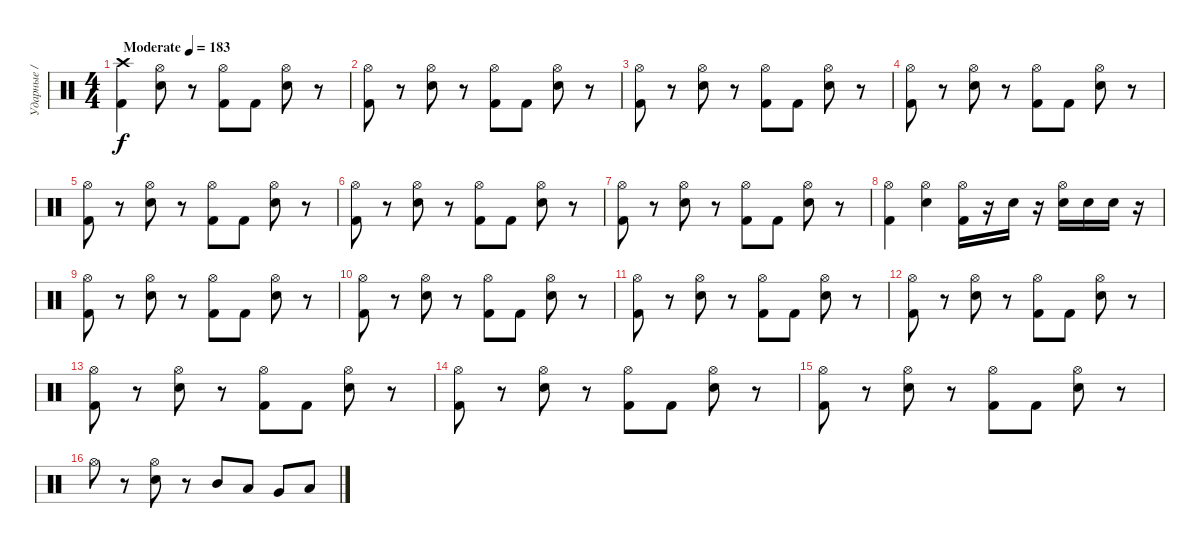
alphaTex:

\track ("Ударные / Drums" "Ударные / ") {instrument percussion}
\staff {score}
\articulation defaults
\ts (4 4)
\tempo (183 "Moderate")
\clef neutral
\ks c
("Crash high (hit)" "Kick (hit) 2").4{dy f} ("Hi-Hat (open)" "Snare (hit) 2").8 r.8 ("Hi-Hat (open)" "Kick (hit) 2").8 "Kick (hit) 2".8 ("Hi-Hat (open)" "Snare (hit) 2").8 r.8 |
("Hi-Hat (open)" "Kick (hit) 2").8 r.8 ("Hi-Hat (open)" "Snare (hit) 2").8 r.8 ("Hi-Hat (open)" "Kick (hit) 2").8 "Kick (hit) 2".8 ("Hi-Hat (open)" "Snare (hit) 2").8 r.8 |
("Hi-Hat (open)" "Kick (hit) 2").8 r.8 ("Hi-Hat (open)" "Snare (hit) 2").8 r.8 ("Hi-Hat (open)" "Kick (hit) 2").8 "Kick (hit) 2".8 ("Hi-Hat (open)" "Snare (hit) 2").8 r.8 |
("Hi-Hat (open)" "Kick (hit) 2").8 r.8 ("Hi-Hat (open)" "Snare (hit) 2").8 r.8 ("Hi-Hat (open)" "Kick (hit) 2").8 "Kick (hit) 2".8 ("Hi-Hat (open)" "Snare (hit) 2").8 r.8 |
("Hi-Hat (open)" "Kick (hit) 2").8 r.8 ("Hi-Hat (open)" "Snare (hit) 2").8 r.8 ("Hi-Hat (open)" "Kick (hit) 2").8 "Kick (hit) 2".8 ("Hi-Hat (open)" "Snare (hit) 2").8 r.8 |
("Hi-Hat (open)" "Kick (hit) 2").8 r.8 ("Hi-Hat (open)" "Snare (hit) 2").8 r.8 ("Hi-Hat (open)" "Kick (hit) 2").8 "Kick (hit) 2".8 ("Hi-Hat (open)" "Snare (hit) 2").8 r.8 |
("Hi-Hat (open)" "Kick (hit) 2").8 r.8 ("Hi-Hat (open)" "Snare (hit) 2").8 r.8 ("Hi-Hat (open)" "Kick (hit) 2").8 "Kick (hit) 2".8 ("Hi-Hat (open)" "Snare (hit) 2").8 r.8 |
("Hi-Hat (open)" "Kick (hit) 2").4 ("Hi-Hat (open)" "Snare (hit) 2").4 ("Hi-Hat (open)" "Kick (hit) 2").16 r.16 "Snare (hit) 2".16 r.16 ("Hi-Hat (open)" "Snare (hit) 2").16 "Snare (hit) 2".16 "Snare (hit) 2".16 r.16 |
("Hi-Hat (open)" "Kick (hit) 2").8 r.8 ("Hi-Hat (open)" "Snare (hit) 2").8 r.8 ("Hi-Hat (open)" "Kick (hit) 2").8 "Kick (hit) 2".8 ("Hi-Hat (open)" "Snare (hit) 2").8 r.8 |
("Hi-Hat (open)" "Kick (hit) 2").8 r.8 ("Hi-Hat (open)" "Snare (hit) 2").8 r.8 ("Hi-Hat (open)" "Kick (hit) 2").8 "Kick (hit) 2".8 ("Hi-Hat (open)" "Snare (hit) 2").8 r.8 |
("Hi-Hat (open)" "Kick (hit) 2").8 r.8 ("Hi-Hat (open)" "Snare (hit) 2").8 r.8 ("Hi-Hat (open)" "Kick (hit) 2").8 "Kick (hit) 2".8 ("Hi-Hat (open)" "Snare (hit) 2").8 r.8 |
("Hi-Hat (open)" "Kick (hit) 2").8 r.8 ("Hi-Hat (open)" "Snare (hit) 2").8 r.8 ("Hi-Hat (open)" "Kick (hit) 2").8 "Kick (hit) 2".8 ("Hi-Hat (open)" "Snare (hit) 2").8 r.8 |
("Hi-Hat (open)" "Kick (hit) 2").8 r.8 ("Hi-Hat (open)" "Snare (hit) 2").8 r.8 ("Hi-Hat (open)" "Kick (hit) 2").8 "Kick (hit) 2".8 ("Hi-Hat (open)" "Snare (hit) 2").8 r.8 |
("Hi-Hat (open)" "Kick (hit) 2").8 r.8 ("Hi-Hat (open)" "Snare (hit) 2").8 r.8 ("Hi-Hat (open)" "Kick (hit) 2").8 "Kick (hit) 2".8 ("Hi-Hat (open)" "Snare (hit) 2").8 r.8 |
("Hi-Hat (open)" "Kick (hit) 2").8 r.8 ("Hi-Hat (open)" "Snare (hit) 2").8 r.8 ("Hi-Hat (open)" "Kick (hit) 2").8 "Kick (hit) 2".8 ("Hi-Hat (open)" "Snare (hit) 2").8 r.8 |
"Hi-Hat (open)".8 r.8 ("Hi-Hat (open)" "Snare (hit) 2").8 r.8 "Mid Tom (hit)".8 "Low Tom (hit)".8 "Very Low Tom (hit)".8 "Low Floor Tom (hit)".8
